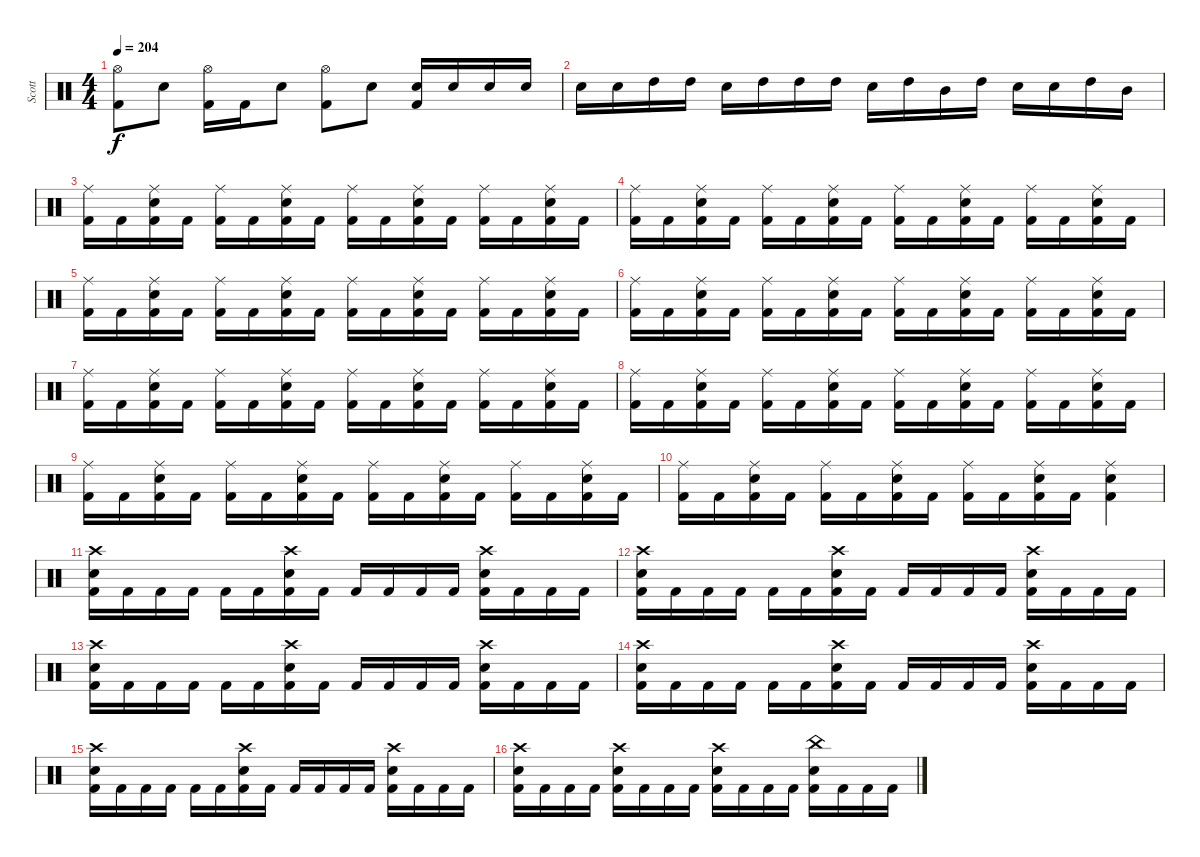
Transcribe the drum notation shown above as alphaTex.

\track ("Scott" "Scott") {instrument percussion}
\staff {score}
\articulation defaults
\ts (4 4)
\tempo 204
\clef neutral
\ks c
("Hi-Hat (open)" "Kick (hit) 2").8{dy f} "Snare (hit) 2".8 ("Hi-Hat (open)" "Kick (hit) 2").16 "Kick (hit) 2".16 "Snare (hit) 2".8 ("Hi-Hat (open)" "Kick (hit) 2").8 "Snare (hit) 2".8 ("Snare (hit) 2" "Kick (hit) 2").16 "Snare (hit) 2".16 "Snare (hit) 2".16 "Snare (hit) 2".16 |
"Snare (hit) 2".16 "Snare (hit) 2".16 "High Tom (hit)".16 "High Tom (hit)".16 "Snare (hit) 2".16 "High Tom (hit)".16 "High Tom (hit)".16 "High Tom (hit)".16 "Snare (hit) 2".16 "High Tom (hit)".16 "Mid Tom (hit)".16 "High Tom (hit)".16 "Snare (hit) 2".16 "Snare (hit) 2".16 "High Tom (hit)".16 "Mid Tom (hit)".16 |
("Ride (middle)" "Kick (hit) 2").16 "Kick (hit) 2".16 ("Ride (middle)" "Snare (hit) 2" "Kick (hit) 2").16 "Kick (hit) 2".16 ("Ride (middle)" "Kick (hit) 2").16 "Kick (hit) 2".16 ("Ride (middle)" "Snare (hit) 2" "Kick (hit) 2").16 "Kick (hit) 2".16 ("Ride (middle)" "Kick (hit) 2").16 "Kick (hit) 2".16 ("Ride (middle)" "Snare (hit) 2" "Kick (hit) 2").16 "Kick (hit) 2".16 ("Ride (middle)" "Kick (hit) 2").16 "Kick (hit) 2".16 ("Ride (middle)" "Snare (hit) 2" "Kick (hit) 2").16 "Kick (hit) 2".16 |
("Ride (middle)" "Kick (hit) 2").16 "Kick (hit) 2".16 ("Ride (middle)" "Snare (hit) 2" "Kick (hit) 2").16 "Kick (hit) 2".16 ("Ride (middle)" "Kick (hit) 2").16 "Kick (hit) 2".16 ("Ride (middle)" "Snare (hit) 2" "Kick (hit) 2").16 "Kick (hit) 2".16 ("Ride (middle)" "Kick (hit) 2").16 "Kick (hit) 2".16 ("Ride (middle)" "Snare (hit) 2" "Kick (hit) 2").16 "Kick (hit) 2".16 ("Ride (middle)" "Kick (hit) 2").16 "Kick (hit) 2".16 ("Ride (middle)" "Snare (hit) 2" "Kick (hit) 2").16 "Kick (hit) 2".16 |
("Ride (middle)" "Kick (hit) 2").16 "Kick (hit) 2".16 ("Ride (middle)" "Snare (hit) 2" "Kick (hit) 2").16 "Kick (hit) 2".16 ("Ride (middle)" "Kick (hit) 2").16 "Kick (hit) 2".16 ("Ride (middle)" "Snare (hit) 2" "Kick (hit) 2").16 "Kick (hit) 2".16 ("Ride (middle)" "Kick (hit) 2").16 "Kick (hit) 2".16 ("Ride (middle)" "Snare (hit) 2" "Kick (hit) 2").16 "Kick (hit) 2".16 ("Ride (middle)" "Kick (hit) 2").16 "Kick (hit) 2".16 ("Ride (middle)" "Snare (hit) 2" "Kick (hit) 2").16 "Kick (hit) 2".16 |
("Ride (middle)" "Kick (hit) 2").16 "Kick (hit) 2".16 ("Ride (middle)" "Snare (hit) 2" "Kick (hit) 2").16 "Kick (hit) 2".16 ("Ride (middle)" "Kick (hit) 2").16 "Kick (hit) 2".16 ("Ride (middle)" "Snare (hit) 2" "Kick (hit) 2").16 "Kick (hit) 2".16 ("Ride (middle)" "Kick (hit) 2").16 "Kick (hit) 2".16 ("Ride (middle)" "Snare (hit) 2" "Kick (hit) 2").16 "Kick (hit) 2".16 ("Ride (middle)" "Kick (hit) 2").16 "Kick (hit) 2".16 ("Ride (middle)" "Snare (hit) 2" "Kick (hit) 2").16 "Kick (hit) 2".16 |
("Ride (middle)" "Kick (hit) 2").16 "Kick (hit) 2".16 ("Ride (middle)" "Snare (hit) 2" "Kick (hit) 2").16 "Kick (hit) 2".16 ("Ride (middle)" "Kick (hit) 2").16 "Kick (hit) 2".16 ("Ride (middle)" "Snare (hit) 2" "Kick (hit) 2").16 "Kick (hit) 2".16 ("Ride (middle)" "Kick (hit) 2").16 "Kick (hit) 2".16 ("Ride (middle)" "Snare (hit) 2" "Kick (hit) 2").16 "Kick (hit) 2".16 ("Ride (middle)" "Kick (hit) 2").16 "Kick (hit) 2".16 ("Ride (middle)" "Snare (hit) 2" "Kick (hit) 2").16 "Kick (hit) 2".16 |
("Ride (middle)" "Kick (hit) 2").16 "Kick (hit) 2".16 ("Ride (middle)" "Snare (hit) 2" "Kick (hit) 2").16 "Kick (hit) 2".16 ("Ride (middle)" "Kick (hit) 2").16 "Kick (hit) 2".16 ("Ride (middle)" "Snare (hit) 2" "Kick (hit) 2").16 "Kick (hit) 2".16 ("Ride (middle)" "Kick (hit) 2").16 "Kick (hit) 2".16 ("Ride (middle)" "Snare (hit) 2" "Kick (hit) 2").16 "Kick (hit) 2".16 ("Ride (middle)" "Kick (hit) 2").16 "Kick (hit) 2".16 ("Ride (middle)" "Snare (hit) 2" "Kick (hit) 2").16 "Kick (hit) 2".16 |
("Ride (middle)" "Kick (hit) 2").16 "Kick (hit) 2".16 ("Ride (middle)" "Snare (hit) 2" "Kick (hit) 2").16 "Kick (hit) 2".16 ("Ride (middle)" "Kick (hit) 2").16 "Kick (hit) 2".16 ("Ride (middle)" "Snare (hit) 2" "Kick (hit) 2").16 "Kick (hit) 2".16 ("Ride (middle)" "Kick (hit) 2").16 "Kick (hit) 2".16 ("Ride (middle)" "Snare (hit) 2" "Kick (hit) 2").16 "Kick (hit) 2".16 ("Ride (middle)" "Kick (hit) 2").16 "Kick (hit) 2".16 ("Ride (middle)" "Snare (hit) 2" "Kick (hit) 2").16 "Kick (hit) 2".16 |
("Ride (middle)" "Kick (hit) 2").16 "Kick (hit) 2".16 ("Ride (middle)" "Snare (hit) 2" "Kick (hit) 2").16 "Kick (hit) 2".16 ("Ride (middle)" "Kick (hit) 2").16 "Kick (hit) 2".16 ("Ride (middle)" "Snare (hit) 2" "Kick (hit) 2").16 "Kick (hit) 2".16 ("Ride (middle)" "Kick (hit) 2").16 "Kick (hit) 2".16 ("Ride (middle)" "Snare (hit) 2" "Kick (hit) 2").16 "Kick (hit) 2".16 ("Ride (middle)" "Snare (hit) 2" "Kick (hit) 2").4 |
("Crash high (hit)" "Snare (hit) 2" "Kick (hit) 2").16 "Kick (hit) 2".16 "Kick (hit) 2".16 "Kick (hit) 2".16 "Kick (hit) 2".16 "Kick (hit) 2".16 ("Crash high (hit)" "Snare (hit) 2" "Kick (hit) 2").16 "Kick (hit) 2".16 "Kick (hit) 2".16 "Kick (hit) 2".16 "Kick (hit) 2".16 "Kick (hit) 2".16 ("Crash high (hit)" "Snare (hit) 2" "Kick (hit) 2").16 "Kick (hit) 2".16 "Kick (hit) 2".16 "Kick (hit) 2".16 |
("Crash high (hit)" "Snare (hit) 2" "Kick (hit) 2").16 "Kick (hit) 2".16 "Kick (hit) 2".16 "Kick (hit) 2".16 "Kick (hit) 2".16 "Kick (hit) 2".16 ("Crash high (hit)" "Snare (hit) 2" "Kick (hit) 2").16 "Kick (hit) 2".16 "Kick (hit) 2".16 "Kick (hit) 2".16 "Kick (hit) 2".16 "Kick (hit) 2".16 ("Crash high (hit)" "Snare (hit) 2" "Kick (hit) 2").16 "Kick (hit) 2".16 "Kick (hit) 2".16 "Kick (hit) 2".16 |
("Crash high (hit)" "Snare (hit) 2" "Kick (hit) 2").16 "Kick (hit) 2".16 "Kick (hit) 2".16 "Kick (hit) 2".16 "Kick (hit) 2".16 "Kick (hit) 2".16 ("Crash high (hit)" "Snare (hit) 2" "Kick (hit) 2").16 "Kick (hit) 2".16 "Kick (hit) 2".16 "Kick (hit) 2".16 "Kick (hit) 2".16 "Kick (hit) 2".16 ("Crash high (hit)" "Snare (hit) 2" "Kick (hit) 2").16 "Kick (hit) 2".16 "Kick (hit) 2".16 "Kick (hit) 2".16 |
("Crash high (hit)" "Snare (hit) 2" "Kick (hit) 2").16 "Kick (hit) 2".16 "Kick (hit) 2".16 "Kick (hit) 2".16 "Kick (hit) 2".16 "Kick (hit) 2".16 ("Crash high (hit)" "Snare (hit) 2" "Kick (hit) 2").16 "Kick (hit) 2".16 "Kick (hit) 2".16 "Kick (hit) 2".16 "Kick (hit) 2".16 "Kick (hit) 2".16 ("Crash high (hit)" "Snare (hit) 2" "Kick (hit) 2").16 "Kick (hit) 2".16 "Kick (hit) 2".16 "Kick (hit) 2".16 |
("Crash high (hit)" "Snare (hit) 2" "Kick (hit) 2").16 "Kick (hit) 2".16 "Kick (hit) 2".16 "Kick (hit) 2".16 "Kick (hit) 2".16 "Kick (hit) 2".16 ("Crash high (hit)" "Snare (hit) 2" "Kick (hit) 2").16 "Kick (hit) 2".16 "Kick (hit) 2".16 "Kick (hit) 2".16 "Kick (hit) 2".16 "Kick (hit) 2".16 ("Crash high (hit)" "Snare (hit) 2" "Kick (hit) 2").16 "Kick (hit) 2".16 "Kick (hit) 2".16 "Kick (hit) 2".16 |
("Crash high (hit)" "Snare (hit) 2" "Kick (hit) 2").16 "Kick (hit) 2".16 "Kick (hit) 2".16 "Kick (hit) 2".16 ("Crash high (hit)" "Snare (hit) 2" "Kick (hit) 2").16 "Kick (hit) 2".16 "Kick (hit) 2".16 "Kick (hit) 2".16 ("Crash high (hit)" "Snare (hit) 2" "Kick (hit) 2").16 "Kick (hit) 2".16 "Kick (hit) 2".16 "Kick (hit) 2".16 ("China (hit)" "Snare (hit) 2" "Kick (hit) 2").16 "Kick (hit) 2".16 "Kick (hit) 2".16 "Kick (hit) 2".16
